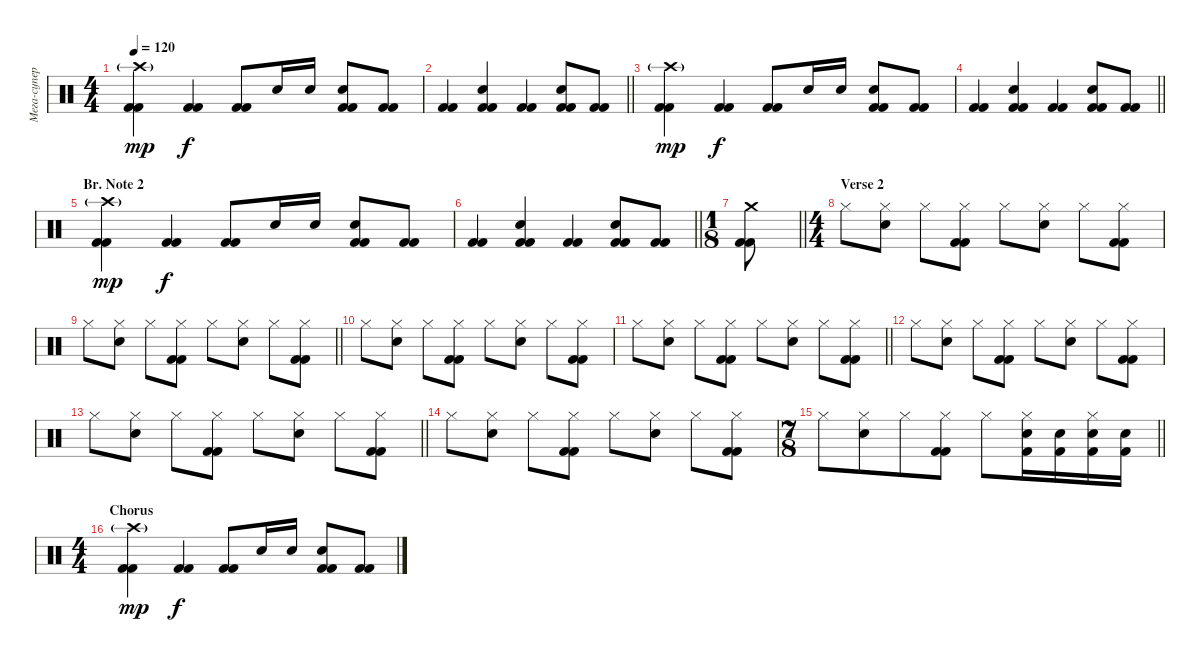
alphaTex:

\track ("Мега-супер-охеренный драммер" "Мега-супер") {instrument percussion}
\staff {score}
\articulation defaults
\ts (4 4)
\tempo 120
\clef neutral
\ks c
("Crash high (hit)"{g} "Kick (hit) 2" "Kick (hit) 2").4{dy mp} ("Kick (hit) 2" "Kick (hit) 2").4{dy f} ("Kick (hit) 2" "Kick (hit) 2").8 "Electric Snare (hit)".16 "Electric Snare (hit)".16 ("Electric Snare (hit)" "Kick (hit) 2" "Kick (hit) 2").8 ("Kick (hit) 2" "Kick (hit) 2").8 |
\barLineRight lightlight
("Kick (hit) 2" "Kick (hit) 2").4 ("Electric Snare (hit)" "Kick (hit) 2" "Kick (hit) 2").4 ("Kick (hit) 2" "Kick (hit) 2").4 ("Electric Snare (hit)" "Kick (hit) 2" "Kick (hit) 2").8 ("Kick (hit) 2" "Kick (hit) 2").8 |
("Crash high (hit)"{g} "Kick (hit) 2" "Kick (hit) 2").4{dy mp} ("Kick (hit) 2" "Kick (hit) 2").4{dy f} ("Kick (hit) 2" "Kick (hit) 2").8 "Electric Snare (hit)".16 "Electric Snare (hit)".16 ("Electric Snare (hit)" "Kick (hit) 2" "Kick (hit) 2").8 ("Kick (hit) 2" "Kick (hit) 2").8 |
\barLineRight lightlight
("Kick (hit) 2" "Kick (hit) 2").4 ("Electric Snare (hit)" "Kick (hit) 2" "Kick (hit) 2").4 ("Kick (hit) 2" "Kick (hit) 2").4 ("Electric Snare (hit)" "Kick (hit) 2" "Kick (hit) 2").8 ("Kick (hit) 2" "Kick (hit) 2").8 |
\section ("" "Br. Note 2")
("Crash high (hit)"{g} "Kick (hit) 2" "Kick (hit) 2").4{dy mp} ("Kick (hit) 2" "Kick (hit) 2").4{dy f} ("Kick (hit) 2" "Kick (hit) 2").8 "Electric Snare (hit)".16 "Electric Snare (hit)".16 ("Electric Snare (hit)" "Kick (hit) 2" "Kick (hit) 2").8 ("Kick (hit) 2" "Kick (hit) 2").8 |
\barLineRight lightlight
("Kick (hit) 2" "Kick (hit) 2").4 ("Electric Snare (hit)" "Kick (hit) 2" "Kick (hit) 2").4 ("Kick (hit) 2" "Kick (hit) 2").4 ("Electric Snare (hit)" "Kick (hit) 2" "Kick (hit) 2").8 ("Kick (hit) 2" "Kick (hit) 2").8 |
\ts (1 8)
\barLineRight lightlight
("Crash medium (hit)" "Kick (hit) 2" "Kick (hit) 2").8 |
\ts (4 4)
\section ("" "Verse 2")
"Hi-Hat (closed)".8 ("Hi-Hat (closed)" "Electric Snare (hit)").8 "Hi-Hat (closed)".8 ("Hi-Hat (closed)" "Kick (hit) 2" "Kick (hit) 2").8 "Hi-Hat (closed)".8 ("Hi-Hat (closed)" "Electric Snare (hit)").8 "Hi-Hat (closed)".8 ("Hi-Hat (closed)" "Kick (hit) 2" "Kick (hit) 2").8 |
\barLineRight lightlight "Hi-Hat (closed)".8
("Hi-Hat (closed)" "Electric Snare (hit)").8 "Hi-Hat (closed)".8 ("Hi-Hat (closed)" "Kick (hit) 2" "Kick (hit) 2").8 "Hi-Hat (closed)".8 ("Hi-Hat (closed)" "Electric Snare (hit)").8 "Hi-Hat (closed)".8 ("Hi-Hat (closed)" "Kick (hit) 2" "Kick (hit) 2").8 |
"Hi-Hat (closed)".8 ("Hi-Hat (closed)" "Electric Snare (hit)").8 "Hi-Hat (closed)".8 ("Hi-Hat (closed)" "Kick (hit) 2" "Kick (hit) 2").8 "Hi-Hat (closed)".8 ("Hi-Hat (closed)" "Electric Snare (hit)").8 "Hi-Hat (closed)".8 ("Hi-Hat (closed)" "Kick (hit) 2" "Kick (hit) 2").8 |
\barLineRight lightlight "Hi-Hat (closed)".8
("Hi-Hat (closed)" "Electric Snare (hit)").8 "Hi-Hat (closed)".8 ("Hi-Hat (closed)" "Kick (hit) 2" "Kick (hit) 2").8 "Hi-Hat (closed)".8 ("Hi-Hat (closed)" "Electric Snare (hit)").8 "Hi-Hat (closed)".8 ("Hi-Hat (closed)" "Kick (hit) 2" "Kick (hit) 2").8 |
"Hi-Hat (closed)".8 ("Hi-Hat (closed)" "Electric Snare (hit)").8 "Hi-Hat (closed)".8 ("Hi-Hat (closed)" "Kick (hit) 2" "Kick (hit) 2").8 "Hi-Hat (closed)".8 ("Hi-Hat (closed)" "Electric Snare (hit)").8 "Hi-Hat (closed)".8 ("Hi-Hat (closed)" "Kick (hit) 2" "Kick (hit) 2").8 |
\barLineRight lightlight "Hi-Hat (closed)".8
("Hi-Hat (closed)" "Electric Snare (hit)").8 "Hi-Hat (closed)".8 ("Hi-Hat (closed)" "Kick (hit) 2" "Kick (hit) 2").8 "Hi-Hat (closed)".8 ("Hi-Hat (closed)" "Electric Snare (hit)").8 "Hi-Hat (closed)".8 ("Hi-Hat (closed)" "Kick (hit) 2" "Kick (hit) 2").8 |
"Hi-Hat (closed)".8 ("Hi-Hat (closed)" "Electric Snare (hit)").8 "Hi-Hat (closed)".8 ("Hi-Hat (closed)" "Kick (hit) 2" "Kick (hit) 2").8 "Hi-Hat (closed)".8 ("Hi-Hat (closed)" "Electric Snare (hit)").8 "Hi-Hat (closed)".8 ("Hi-Hat (closed)" "Kick (hit) 2" "Kick (hit) 2").8 |
\ts (7 8)
\barLineRight lightlight "Hi-Hat (closed)".8
("Hi-Hat (closed)" "Electric Snare (hit)").8 "Hi-Hat (closed)".8 ("Hi-Hat (closed)" "Kick (hit) 2" "Kick (hit) 2").8 "Hi-Hat (closed)".8 ("Hi-Hat (closed)" "Electric Snare (hit)" "Kick (hit) 2").16 ("Electric Snare (hit)" "Kick (hit) 2").16 ("Hi-Hat (closed)" "Electric Snare (hit)" "Kick (hit) 2").16 ("Electric Snare (hit)" "Kick (hit) 2").16 |
\ts (4 4)
\section ("" "Chorus")
("Crash high (hit)"{g} "Kick (hit) 2" "Kick (hit) 2").4{dy mp} ("Kick (hit) 2" "Kick (hit) 2").4{dy f} ("Kick (hit) 2" "Kick (hit) 2").8 "Electric Snare (hit)".16 "Electric Snare (hit)".16 ("Electric Snare (hit)" "Kick (hit) 2" "Kick (hit) 2").8 ("Kick (hit) 2" "Kick (hit) 2").8
